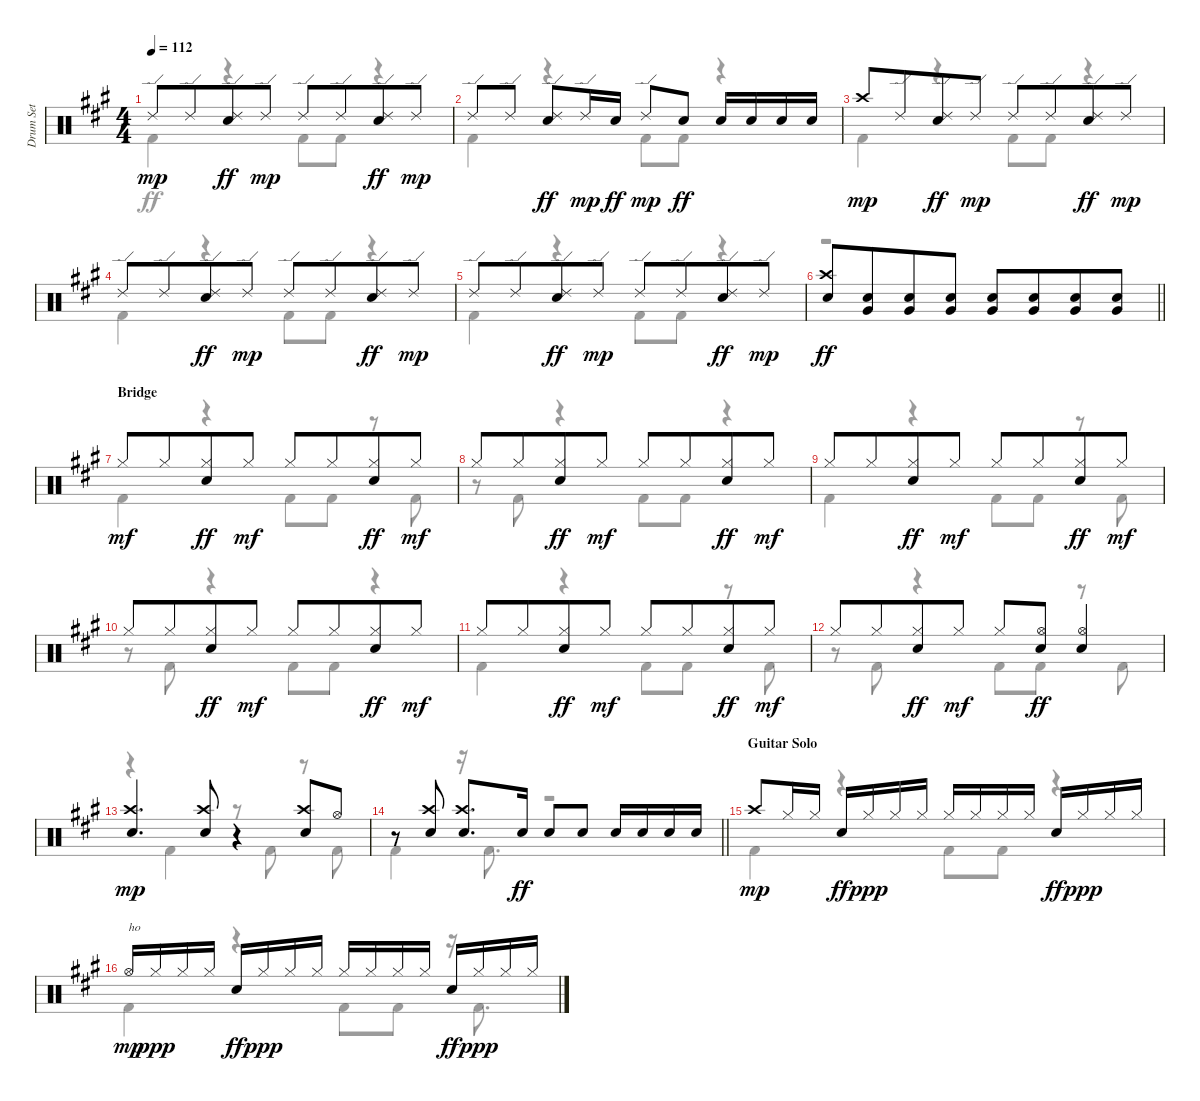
\track ("Drum Set" "Drum Set") {instrument percussion}
\staff {score}
\articulation defaults
\voice
\ts (4 4)
\tempo 112
\clef neutral
\ks f#minor "Ride (edge) 2".8{dy mp} "Ride (edge) 2".8{beam merge}
("Ride (edge) 2" "Electric Snare (hit)").8{dy ff} "Ride (edge) 2".8{dy mp} "Ride (edge) 2".8 "Ride (edge) 2".8{beam merge} ("Ride (edge) 2" "Electric Snare (hit)").8{dy ff} "Ride (edge) 2".8{dy mp} |
"Ride (edge) 2".8 "Ride (edge) 2".8{beam split} ("Ride (edge) 2" "Electric Snare (hit)").8{dy ff} "Ride (edge) 2".16{dy mp} "Electric Snare (hit)".16{dy ff} "Ride (edge) 2".8{dy mp} "Electric Snare (hit)".8{dy ff} "Electric Snare (hit)".16 "Electric Snare (hit)".16 "Electric Snare (hit)".16 "Electric Snare (hit)".16 |
"Crash high (hit)".8{dy mp} "Ride (edge) 2".8{beam merge} ("Ride (edge) 2" "Electric Snare (hit)").8{dy ff} "Ride (edge) 2".8{dy mp} "Ride (edge) 2".8 "Ride (edge) 2".8{beam merge} ("Ride (edge) 2" "Electric Snare (hit)").8{dy ff} "Ride (edge) 2".8{dy mp} |
"Ride (edge) 2".8 "Ride (edge) 2".8{beam merge} ("Ride (edge) 2" "Electric Snare (hit)").8{dy ff} "Ride (edge) 2".8{dy mp} "Ride (edge) 2".8 "Ride (edge) 2".8{beam merge} ("Ride (edge) 2" "Electric Snare (hit)").8{dy ff} "Ride (edge) 2".8{dy mp} |
"Ride (edge) 2".8 "Ride (edge) 2".8{beam merge} ("Ride (edge) 2" "Electric Snare (hit)").8{dy ff} "Ride (edge) 2".8{dy mp} "Ride (edge) 2".8 "Ride (edge) 2".8{beam merge} ("Ride (edge) 2" "Electric Snare (hit)").8{dy ff} "Ride (edge) 2".8{dy mp} |
\barLineRight lightlight
("Crash high (hit)" "Electric Snare (hit)").8{dy ff} ("Electric Snare (hit)" "Very Low Tom (hit)").8{volume 2 beam merge} ("Electric Snare (hit)" "Very Low Tom (hit)").8 ("Electric Snare (hit)" "Very Low Tom (hit)").8 ("Electric Snare (hit)" "Very Low Tom (hit)").8{volume 13} ("Electric Snare (hit)" "Very Low Tom (hit)").8{beam merge} ("Electric Snare (hit)" "Very Low Tom (hit)").8 ("Electric Snare (hit)" "Very Low Tom (hit)").8 |
\section ("" "Bridge")
"Hi-Hat (closed)".8{dy mf} "Hi-Hat (closed)".8{beam merge} ("Hi-Hat (closed)" "Electric Snare (hit)").8{dy ff} "Hi-Hat (closed)".8{dy mf} "Hi-Hat (closed)".8 "Hi-Hat (closed)".8{beam merge} ("Hi-Hat (closed)" "Electric Snare (hit)").8{dy ff} "Hi-Hat (closed)".8{dy mf} |
"Hi-Hat (closed)".8 "Hi-Hat (closed)".8{beam merge} ("Hi-Hat (closed)" "Electric Snare (hit)").8{dy ff} "Hi-Hat (closed)".8{dy mf} "Hi-Hat (closed)".8 "Hi-Hat (closed)".8{beam merge} ("Hi-Hat (closed)" "Electric Snare (hit)").8{dy ff} "Hi-Hat (closed)".8{dy mf} |
"Hi-Hat (closed)".8 "Hi-Hat (closed)".8{beam merge} ("Hi-Hat (closed)" "Electric Snare (hit)").8{dy ff} "Hi-Hat (closed)".8{dy mf} "Hi-Hat (closed)".8 "Hi-Hat (closed)".8{beam merge} ("Hi-Hat (closed)" "Electric Snare (hit)").8{dy ff} "Hi-Hat (closed)".8{dy mf} |
"Hi-Hat (closed)".8 "Hi-Hat (closed)".8{beam merge} ("Hi-Hat (closed)" "Electric Snare (hit)").8{dy ff} "Hi-Hat (closed)".8{dy mf} "Hi-Hat (closed)".8 "Hi-Hat (closed)".8{beam merge} ("Hi-Hat (closed)" "Electric Snare (hit)").8{dy ff} "Hi-Hat (closed)".8{dy mf} |
"Hi-Hat (closed)".8 "Hi-Hat (closed)".8{beam merge} ("Hi-Hat (closed)" "Electric Snare (hit)").8{dy ff} "Hi-Hat (closed)".8{dy mf} "Hi-Hat (closed)".8 "Hi-Hat (closed)".8{beam merge} ("Hi-Hat (closed)" "Electric Snare (hit)").8{dy ff} "Hi-Hat (closed)".8{dy mf} |
"Hi-Hat (closed)".8 "Hi-Hat (closed)".8{beam merge} ("Hi-Hat (closed)" "Electric Snare (hit)").8{dy ff} "Hi-Hat (closed)".8{dy mf} "Hi-Hat (closed)".8 ("Hi-Hat (open)" "Electric Snare (hit)").8{dy ff beam merge} ("Hi-Hat (open)" "Electric Snare (hit)").4 |
("Electric Snare (hit)" "Crash high (hit)").4{d dy mp} ("Electric Snare (hit)" "Crash high (hit)").8 r.4 ("Electric Snare (hit)" "Crash high (hit)").8 "Hi-Hat (open)".8 |
\barLineRight lightlight
r.8 ("Electric Snare (hit)" "Crash high (hit)").8 ("Electric Snare (hit)" "Crash high (hit)").8{d} "Electric Snare (hit)".16{dy ff} "Electric Snare (hit)".8 "Electric Snare (hit)".8 "Electric Snare (hit)".16 "Electric Snare (hit)".16 "Electric Snare (hit)".16 "Electric Snare (hit)".16 |
\section ("" "Guitar Solo")
"Crash high (hit)".8{dy mp} "Hi-Hat (closed)".16 "Hi-Hat (closed)".16 "Electric Snare (hit)".16{dy ff} "Hi-Hat (closed)".16{dy ppp} "Hi-Hat (closed)".16 "Hi-Hat (closed)".16 "Hi-Hat (closed)".16 "Hi-Hat (closed)".16 "Hi-Hat (closed)".16 "Hi-Hat (closed)".16 "Electric Snare (hit)".16{dy ff} "Hi-Hat (closed)".16{dy ppp} "Hi-Hat (closed)".16 "Hi-Hat (closed)".16 |
"Hi-Hat (open)".16{txt "ho" dy mp} "Hi-Hat (closed)".16{dy ppp} "Hi-Hat (closed)".16 "Hi-Hat (closed)".16 "Electric Snare (hit)".16{dy ff} "Hi-Hat (closed)".16{dy ppp} "Hi-Hat (closed)".16 "Hi-Hat (closed)".16 "Hi-Hat (closed)".16 "Hi-Hat (closed)".16 "Hi-Hat (closed)".16 "Hi-Hat (closed)".16 "Electric Snare (hit)".16{dy ff} "Hi-Hat (closed)".16{dy ppp} "Hi-Hat (closed)".16 "Hi-Hat (closed)".16
\voice
\clef neutral
\ottava regular
\simile none
\ks f#minor "Kick (hit) 2".4{dy ff}
r.4 "Kick (hit) 2".8 "Kick (hit) 2".8 r.4 |
"Kick (hit) 2".4 r.4 "Kick (hit) 2".8 "Kick (hit) 2".8 r.4 |
"Kick (hit) 2".4 r.4 "Kick (hit) 2".8 "Kick (hit) 2".8 r.4 |
"Kick (hit) 2".4 r.4 "Kick (hit) 2".8 "Kick (hit) 2".8 r.4 |
"Kick (hit) 2".4 r.4 "Kick (hit) 2".8 "Kick (hit) 2".8 r.4 |
\barLineRight lightlight
r.1 |
"Kick (hit) 2".4 r.4 "Kick (hit) 2".8 "Kick (hit) 2".8 r.8 "Kick (hit) 2".8 |
r.8 "Kick (hit) 2".8 r.4 "Kick (hit) 2".8 "Kick (hit) 2".8 r.4 |
"Kick (hit) 2".4 r.4 "Kick (hit) 2".8 "Kick (hit) 2".8 r.8 "Kick (hit) 2".8 |
r.8 "Kick (hit) 2".8 r.4 "Kick (hit) 2".8 "Kick (hit) 2".8 r.4 |
"Kick (hit) 2".4 r.4 "Kick (hit) 2".8 "Kick (hit) 2".8 r.8 "Kick (hit) 2".8 |
r.8 "Kick (hit) 2".8 r.4 "Kick (hit) 2".8 "Kick (hit) 2".8 r.8 "Kick (hit) 2".8 |
r.4 "Kick (hit) 2".4 r.8 "Kick (hit) 2".8 r.8 "Kick (hit) 2".8 |
\barLineRight lightlight "Kick (hit) 2".4
r.16 "Kick (hit) 2".8{d} r.2 |
"Kick (hit) 2".4 r.4 "Kick (hit) 2".8 "Kick (hit) 2".8 r.4 |
"Kick (hit) 2".4 r.4 "Kick (hit) 2".8 "Kick (hit) 2".8 r.16 "Kick (hit) 2".8{d}
